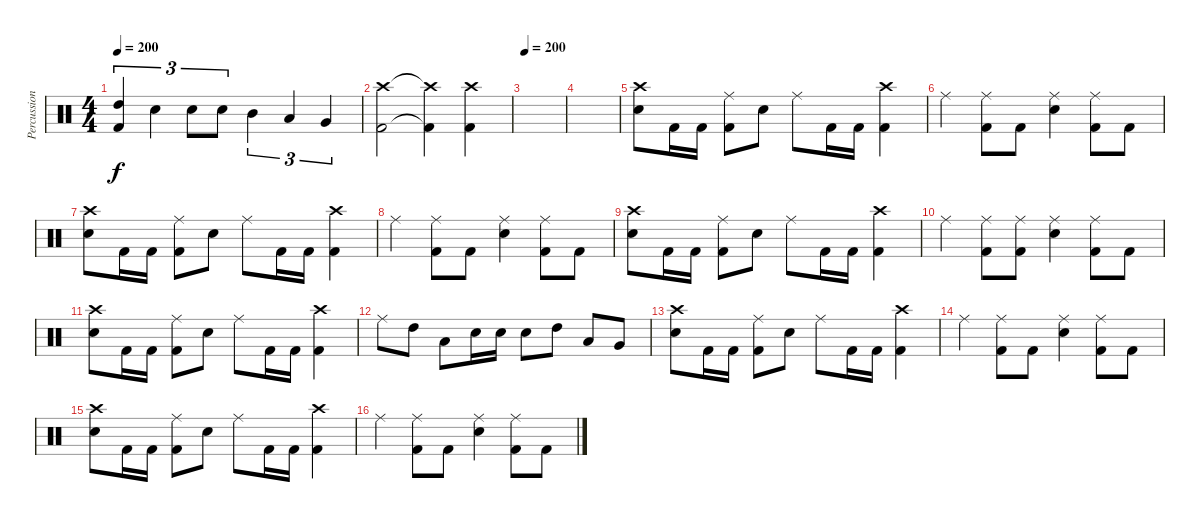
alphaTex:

\track ("Percussion" "Percussion") {instrument percussion}
\staff {score}
\articulation defaults
\ts (4 4)
\tempo 200
\clef neutral
\ks c
("High Tom (hit)" "Kick (hit) 2").4{tu (3 2) dy f} "Snare (hit) 2".4{tu (3 2)} "Snare (hit) 2".8{tu (3 2)} "Snare (hit) 2".8{tu (3 2)} "Mid Tom (hit)".4{tu (3 2)} "Low Tom (hit)".4{tu (3 2)} "Very Low Tom (hit)".4{tu (3 2)} |
("Crash high (hit)" "Kick (hit) 2").2 ("Crash high (hit)"{t} "Kick (hit) 2"{t}).4 ("Crash high (hit)" "Kick (hit) 2").4 |
\tempo 200
|
|
("Crash high (hit)" "Snare (hit) 2").8 "Kick (hit) 2".16 "Kick (hit) 2".16 ("Ride (middle)" "Kick (hit) 2").8 "Snare (hit) 2".8 "Ride (middle)".8 "Kick (hit) 2".16 "Kick (hit) 2".16 ("Crash high (hit)" "Kick (hit) 2").4 |
"Ride (middle)".4 ("Ride (middle)" "Kick (hit) 2").8 "Kick (hit) 2".8 ("Ride (middle)" "Snare (hit) 2").4 ("Ride (middle)" "Kick (hit) 2").8 "Kick (hit) 2".8 |
("Crash high (hit)" "Snare (hit) 2").8 "Kick (hit) 2".16 "Kick (hit) 2".16 ("Ride (middle)" "Kick (hit) 2").8 "Snare (hit) 2".8 "Ride (middle)".8 "Kick (hit) 2".16 "Kick (hit) 2".16 ("Crash high (hit)" "Kick (hit) 2").4 |
"Ride (middle)".4 ("Ride (middle)" "Kick (hit) 2").8 "Kick (hit) 2".8 ("Ride (middle)" "Snare (hit) 2").4 ("Ride (middle)" "Kick (hit) 2").8 "Kick (hit) 2".8 |
("Crash high (hit)" "Snare (hit) 2").8 "Kick (hit) 2".16 "Kick (hit) 2".16 ("Ride (middle)" "Kick (hit) 2").8 "Snare (hit) 2".8 "Ride (middle)".8 "Kick (hit) 2".16 "Kick (hit) 2".16 ("Crash high (hit)" "Kick (hit) 2").4 |
"Ride (middle)".4 ("Ride (middle)" "Kick (hit) 2").8 ("Ride (middle)" "Kick (hit) 2").8 ("Ride (middle)" "Snare (hit) 2").4 ("Ride (middle)" "Kick (hit) 2").8 "Kick (hit) 2".8 |
("Crash high (hit)" "Snare (hit) 2").8 "Kick (hit) 2".16 "Kick (hit) 2".16 ("Ride (middle)" "Kick (hit) 2").8 "Snare (hit) 2".8 "Ride (middle)".8 "Kick (hit) 2".16 "Kick (hit) 2".16 ("Crash high (hit)" "Kick (hit) 2").4 |
"Ride (middle)".8 "High Tom (hit)".8 "Low Tom (hit)".8 "Snare (hit) 2".16 "Snare (hit) 2".16 "Snare (hit) 2".8 "High Tom (hit)".8 "Low Tom (hit)".8 "Very Low Tom (hit)".8 |
("Crash high (hit)" "Snare (hit) 2").8 "Kick (hit) 2".16 "Kick (hit) 2".16 ("Ride (middle)" "Kick (hit) 2").8 "Snare (hit) 2".8 "Ride (middle)".8 "Kick (hit) 2".16 "Kick (hit) 2".16 ("Crash high (hit)" "Kick (hit) 2").4 |
"Ride (middle)".4 ("Ride (middle)" "Kick (hit) 2").8 "Kick (hit) 2".8 ("Ride (middle)" "Snare (hit) 2").4 ("Ride (middle)" "Kick (hit) 2").8 "Kick (hit) 2".8 |
("Crash high (hit)" "Snare (hit) 2").8 "Kick (hit) 2".16 "Kick (hit) 2".16 ("Ride (middle)" "Kick (hit) 2").8 "Snare (hit) 2".8 "Ride (middle)".8 "Kick (hit) 2".16 "Kick (hit) 2".16 ("Crash high (hit)" "Kick (hit) 2").4 |
"Ride (middle)".4 ("Ride (middle)" "Kick (hit) 2").8 "Kick (hit) 2".8 ("Ride (middle)" "Snare (hit) 2").4 ("Ride (middle)" "Kick (hit) 2").8 "Kick (hit) 2".8
